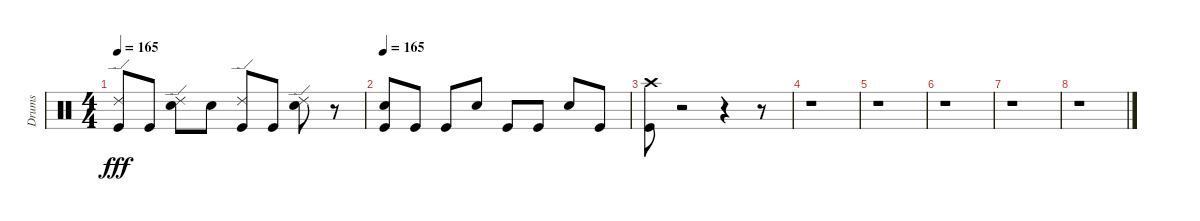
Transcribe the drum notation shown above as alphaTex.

\track ("Drums" "Drums") {instrument percussion}
\staff {score}
\articulation defaults
\ts (4 4)
\tempo 165
\clef neutral
\ks c
("Ride (edge) 2" "Kick (hit)").8{dy fff} "Kick (hit)".8 ("Ride (edge) 2" "Snare (hit) 2").8 "Snare (hit) 2".8 ("Ride (edge) 2" "Kick (hit)").8 "Kick (hit)".8 ("Ride (edge) 2" "Snare (hit) 2").8 r.8 |
\tempo 165
("Snare (hit) 2" "Kick (hit)").8 "Kick (hit)".8 "Kick (hit)".8 "Snare (hit) 2".8 "Kick (hit)".8 "Kick (hit)".8 "Snare (hit) 2".8 "Kick (hit)".8 |
("Crash high (hit)" "Kick (hit)").8 r.2 r.4 r.8 |
r.1 |
r.1 |
r.1 |
r.1 |
r.1
